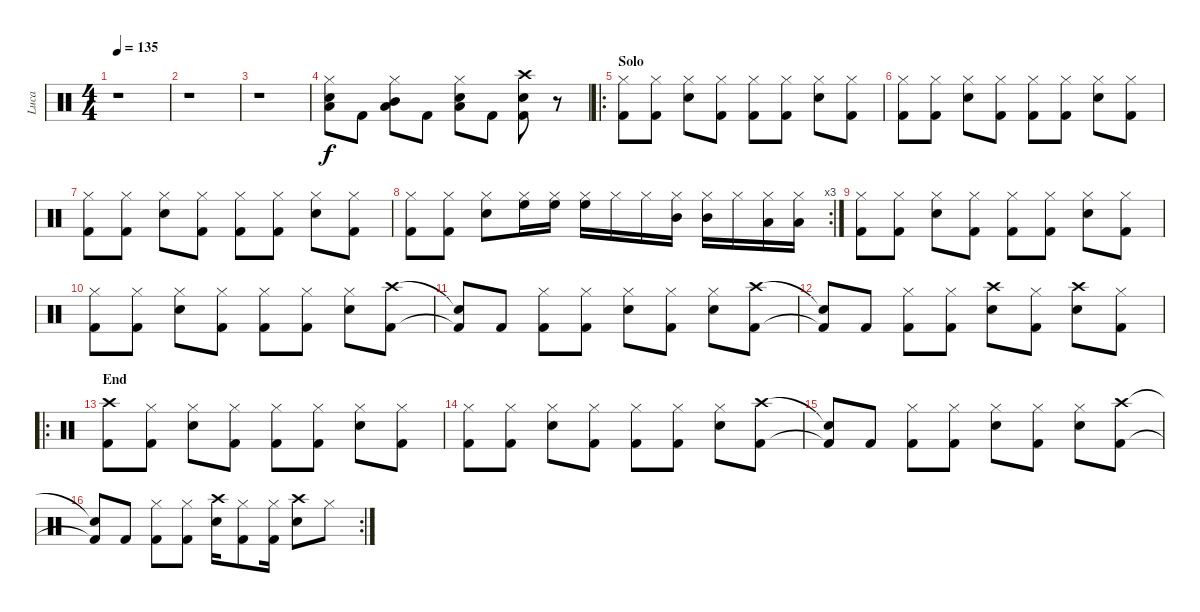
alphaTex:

\track ("Luca" "Luca") {instrument percussion}
\staff {score}
\articulation defaults
\ts (4 4)
\tempo 135
\clef neutral
\ks c
r.1{dy f} |
r.1 |
r.1 |
("Hi-Hat (closed)" "Low Tom (hit)" "Snare (hit) 2").8 "Kick (hit) 2".8 ("Hi-Hat (closed)" "Mid Tom (hit)" "Low Tom (hit)").8 "Kick (hit) 2".8 ("Hi-Hat (closed)" "Low Tom (hit)" "Snare (hit) 2").8 "Kick (hit) 2".8 ("Crash high (hit)" "Snare (hit) 2" "Kick (hit) 2").8 r.8 |
\ro
\section ("" "Solo")
("Hi-Hat (closed)" "Kick (hit) 2").8 ("Hi-Hat (closed)" "Kick (hit) 2").8 ("Hi-Hat (closed)" "Snare (hit) 2").8 ("Hi-Hat (closed)" "Kick (hit) 2").8 ("Hi-Hat (closed)" "Kick (hit) 2").8 ("Hi-Hat (closed)" "Kick (hit) 2").8 ("Hi-Hat (closed)" "Snare (hit) 2").8 ("Hi-Hat (closed)" "Kick (hit) 2").8 |
("Hi-Hat (closed)" "Kick (hit) 2").8 ("Hi-Hat (closed)" "Kick (hit) 2").8 ("Hi-Hat (closed)" "Snare (hit) 2").8 ("Hi-Hat (closed)" "Kick (hit) 2").8 ("Hi-Hat (closed)" "Kick (hit) 2").8 ("Hi-Hat (closed)" "Kick (hit) 2").8 ("Hi-Hat (closed)" "Snare (hit) 2").8 ("Hi-Hat (closed)" "Kick (hit) 2").8 |
("Hi-Hat (closed)" "Kick (hit) 2").8 ("Hi-Hat (closed)" "Kick (hit) 2").8 ("Hi-Hat (closed)" "Snare (hit) 2").8 ("Hi-Hat (closed)" "Kick (hit) 2").8 ("Hi-Hat (closed)" "Kick (hit) 2").8 ("Hi-Hat (closed)" "Kick (hit) 2").8 ("Hi-Hat (closed)" "Snare (hit) 2").8 ("Hi-Hat (closed)" "Kick (hit) 2").8 |
\rc 3
("Hi-Hat (closed)" "Kick (hit) 2").8 ("Hi-Hat (closed)" "Kick (hit) 2").8 ("Hi-Hat (closed)" "Snare (hit) 2").8 ("Hi-Hat (closed)" "High Floor Tom (hit)").16 ("Hi-Hat (closed)" "High Floor Tom (hit)").16 ("Hi-Hat (closed)" "High Floor Tom (hit)").16 "Hi-Hat (closed)".16 "Hi-Hat (closed)".16 ("Hi-Hat (closed)" "Mid Tom (hit)").16 ("Hi-Hat (closed)" "Mid Tom (hit)").16 "Hi-Hat (closed)".16 ("Hi-Hat (closed)" "Low Tom (hit)").16 ("Hi-Hat (closed)" "Low Tom (hit)").16 |
("Hi-Hat (closed)" "Kick (hit) 2").8 ("Hi-Hat (closed)" "Kick (hit) 2").8 ("Hi-Hat (closed)" "Snare (hit) 2").8 ("Hi-Hat (closed)" "Kick (hit) 2").8 ("Hi-Hat (closed)" "Kick (hit) 2").8 ("Hi-Hat (closed)" "Kick (hit) 2").8 ("Hi-Hat (closed)" "Snare (hit) 2").8 ("Hi-Hat (closed)" "Kick (hit) 2").8 |
("Hi-Hat (closed)" "Kick (hit) 2").8 ("Hi-Hat (closed)" "Kick (hit) 2").8 ("Hi-Hat (closed)" "Snare (hit) 2").8 ("Hi-Hat (closed)" "Kick (hit) 2").8 ("Hi-Hat (closed)" "Kick (hit) 2").8 ("Hi-Hat (closed)" "Kick (hit) 2").8 ("Hi-Hat (closed)" "Snare (hit) 2").8 ("Crash high (hit)" "Kick (hit) 2").8 |
("Snare (hit)"{t} "Kick (hit) 2"{t}).8 "Kick (hit) 2".8 ("Hi-Hat (closed)" "Kick (hit) 2").8 ("Hi-Hat (closed)" "Kick (hit) 2").8 ("Hi-Hat (closed)" "Snare (hit) 2").8 ("Hi-Hat (closed)" "Kick (hit) 2").8 ("Hi-Hat (closed)" "Snare (hit) 2").8 ("Crash high (hit)" "Kick (hit) 2").8 |
("Snare (hit)"{t} "Kick (hit) 2"{t}).8 "Kick (hit) 2".8 ("Hi-Hat (closed)" "Kick (hit) 2").8 ("Hi-Hat (closed)" "Kick (hit) 2").8 ("Crash high (hit)" "Snare (hit) 2").8 ("Hi-Hat (closed)" "Kick (hit) 2").8 ("Crash high (hit)" "Snare (hit) 2").8 ("Hi-Hat (closed)" "Kick (hit) 2").8 |
\ro
\section ("" "End")
("Crash high (hit)" "Kick (hit) 2").8 ("Hi-Hat (closed)" "Kick (hit) 2").8 ("Hi-Hat (closed)" "Snare (hit) 2").8 ("Hi-Hat (closed)" "Kick (hit) 2").8 ("Hi-Hat (closed)" "Kick (hit) 2").8 ("Hi-Hat (closed)" "Kick (hit) 2").8 ("Hi-Hat (closed)" "Snare (hit) 2").8 ("Hi-Hat (closed)" "Kick (hit) 2").8 |
("Hi-Hat (closed)" "Kick (hit) 2").8 ("Hi-Hat (closed)" "Kick (hit) 2").8 ("Hi-Hat (closed)" "Snare (hit) 2").8 ("Hi-Hat (closed)" "Kick (hit) 2").8 ("Hi-Hat (closed)" "Kick (hit) 2").8 ("Hi-Hat (closed)" "Kick (hit) 2").8 ("Hi-Hat (closed)" "Snare (hit) 2").8 ("Crash high (hit)" "Kick (hit) 2").8 |
("Snare (hit)"{t} "Kick (hit) 2"{t}).8 "Kick (hit) 2".8 ("Hi-Hat (closed)" "Kick (hit) 2").8 ("Hi-Hat (closed)" "Kick (hit) 2").8 ("Hi-Hat (closed)" "Snare (hit) 2").8 ("Hi-Hat (closed)" "Kick (hit) 2").8 ("Hi-Hat (closed)" "Snare (hit) 2").8 ("Crash high (hit)" "Kick (hit) 2").8 |
\rc 2
("Snare (hit)"{t} "Kick (hit) 2"{t}).8 "Kick (hit) 2".8 ("Hi-Hat (closed)" "Kick (hit) 2").8 ("Hi-Hat (closed)" "Kick (hit) 2").8 ("Crash high (hit)" "Snare (hit) 2").16 ("Hi-Hat (closed)" "Kick (hit) 2").8 ("Hi-Hat (closed)" "Kick (hit) 2").16 ("Crash high (hit)" "Snare (hit) 2").8 "Hi-Hat (closed)".8
